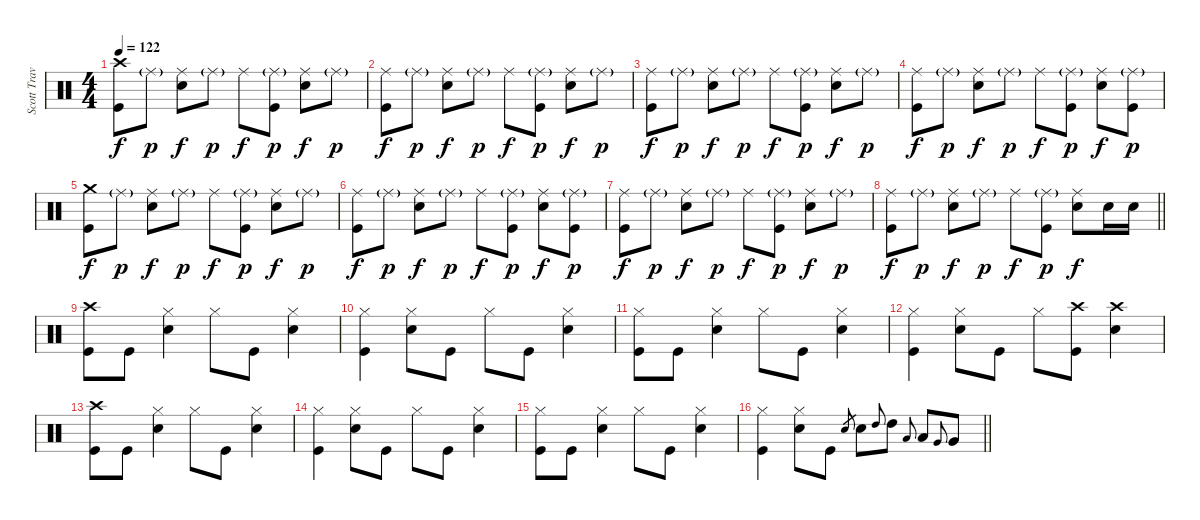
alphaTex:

\track ("Scott Travis" "Scott Trav") {instrument percussion}
\staff {score}
\articulation defaults
\ts (4 4)
\tempo 122
\clef neutral
\ks c
("Crash high (hit)" "Kick (hit)").8{dy f} "Ride (middle)"{g}.8{dy p} ("Ride (middle)" "Snare (hit) 2").8{dy f} "Ride (middle)"{g}.8{dy p} "Ride (middle)".8{dy f} ("Ride (middle)"{g} "Kick (hit)").8{dy p} ("Ride (middle)" "Snare (hit) 2").8{dy f} "Ride (middle)"{g}.8{dy p} |
("Ride (middle)" "Kick (hit)").8{dy f} "Ride (middle)"{g}.8{dy p} ("Ride (middle)" "Snare (hit) 2").8{dy f} "Ride (middle)"{g}.8{dy p} "Ride (middle)".8{dy f} ("Ride (middle)"{g} "Kick (hit)").8{dy p} ("Ride (middle)" "Snare (hit) 2").8{dy f} "Ride (middle)"{g}.8{dy p} |
("Ride (middle)" "Kick (hit)").8{dy f} "Ride (middle)"{g}.8{dy p} ("Ride (middle)" "Snare (hit) 2").8{dy f} "Ride (middle)"{g}.8{dy p} "Ride (middle)".8{dy f} ("Ride (middle)"{g} "Kick (hit)").8{dy p} ("Ride (middle)" "Snare (hit) 2").8{dy f} "Ride (middle)"{g}.8{dy p} |
("Ride (middle)" "Kick (hit)").8{dy f} "Ride (middle)"{g}.8{dy p} ("Ride (middle)" "Snare (hit) 2").8{dy f} "Ride (middle)"{g}.8{dy p} "Ride (middle)".8{dy f} ("Ride (middle)"{g} "Kick (hit)").8{dy p} ("Ride (middle)" "Snare (hit) 2").8{dy f} ("Ride (middle)"{g} "Kick (hit)").8{dy p} |
("Crash medium (hit)" "Kick (hit)").8{dy f} "Ride (middle)"{g}.8{dy p} ("Ride (middle)" "Snare (hit) 2").8{dy f} "Ride (middle)"{g}.8{dy p} "Ride (middle)".8{dy f} ("Ride (middle)"{g} "Kick (hit)").8{dy p} ("Ride (middle)" "Snare (hit) 2").8{dy f} "Ride (middle)"{g}.8{dy p} |
("Ride (middle)" "Kick (hit)").8{dy f} "Ride (middle)"{g}.8{dy p} ("Ride (middle)" "Snare (hit) 2").8{dy f} "Ride (middle)"{g}.8{dy p} "Ride (middle)".8{dy f} ("Ride (middle)"{g} "Kick (hit)").8{dy p} ("Ride (middle)" "Snare (hit) 2").8{dy f} ("Ride (middle)"{g} "Kick (hit)").8{dy p} |
("Ride (middle)" "Kick (hit)").8{dy f} "Ride (middle)"{g}.8{dy p} ("Ride (middle)" "Snare (hit) 2").8{dy f} "Ride (middle)"{g}.8{dy p} "Ride (middle)".8{dy f} ("Ride (middle)"{g} "Kick (hit)").8{dy p} ("Ride (middle)" "Snare (hit) 2").8{dy f} "Ride (middle)"{g}.8{dy p} |
\barLineRight lightlight
("Ride (middle)" "Kick (hit)").8{dy f} "Ride (middle)"{g}.8{dy p} ("Ride (middle)" "Snare (hit) 2").8{dy f} "Ride (middle)"{g}.8{dy p} "Ride (middle)".8{dy f} ("Ride (middle)"{g} "Kick (hit)").8{dy p} ("Ride (middle)" "Snare (hit) 2").8{dy f} "Snare (hit) 2".16 "Snare (hit) 2".16 |
("Crash high (hit)" "Kick (hit)").8 "Kick (hit)".8 ("Hi-Hat (closed)" "Snare (hit) 2").4 "Hi-Hat (closed)".8 "Kick (hit)".8 ("Hi-Hat (closed)" "Snare (hit) 2").4 |
("Hi-Hat (closed)" "Kick (hit)").4 ("Hi-Hat (closed)" "Snare (hit) 2").8 "Kick (hit)".8 "Hi-Hat (closed)".8 "Kick (hit)".8 ("Hi-Hat (closed)" "Snare (hit) 2").4 |
("Hi-Hat (closed)" "Kick (hit)").8 "Kick (hit)".8 ("Hi-Hat (closed)" "Snare (hit) 2").4 "Hi-Hat (closed)".8 "Kick (hit)".8 ("Hi-Hat (closed)" "Snare (hit) 2").4 |
("Hi-Hat (closed)" "Kick (hit)").4 ("Hi-Hat (closed)" "Snare (hit) 2").8 "Kick (hit)".8 "Hi-Hat (closed)".8 ("Crash high (hit)" "Kick (hit)").8 ("Crash high (hit)" "Snare (hit) 2").4 |
("Crash high (hit)" "Kick (hit)").8 "Kick (hit)".8 ("Hi-Hat (closed)" "Snare (hit) 2").4 "Hi-Hat (closed)".8 "Kick (hit)".8 ("Hi-Hat (closed)" "Snare (hit) 2").4 |
("Hi-Hat (closed)" "Kick (hit)").4 ("Hi-Hat (closed)" "Snare (hit) 2").8 "Kick (hit)".8 "Hi-Hat (closed)".8 "Kick (hit)".8 ("Hi-Hat (closed)" "Snare (hit) 2").4 |
("Hi-Hat (closed)" "Kick (hit)").8 "Kick (hit)".8 ("Hi-Hat (closed)" "Snare (hit) 2").4 "Hi-Hat (closed)".8 "Kick (hit)".8 ("Hi-Hat (closed)" "Snare (hit) 2").4 |
\barLineRight lightlight
("Hi-Hat (closed)" "Kick (hit)").4 ("Hi-Hat (closed)" "Snare (hit) 2").8 "Kick (hit)".8 "Snare (hit) 2".8{gr} "Snare (hit) 2".8 "High Tom (hit)".8{gr onbeat} "High Tom (hit)".8 "Low Tom (hit)".8{gr onbeat} "Low Tom (hit)".8 "Very Low Tom (hit)".8{gr onbeat} "Very Low Tom (hit)".8
